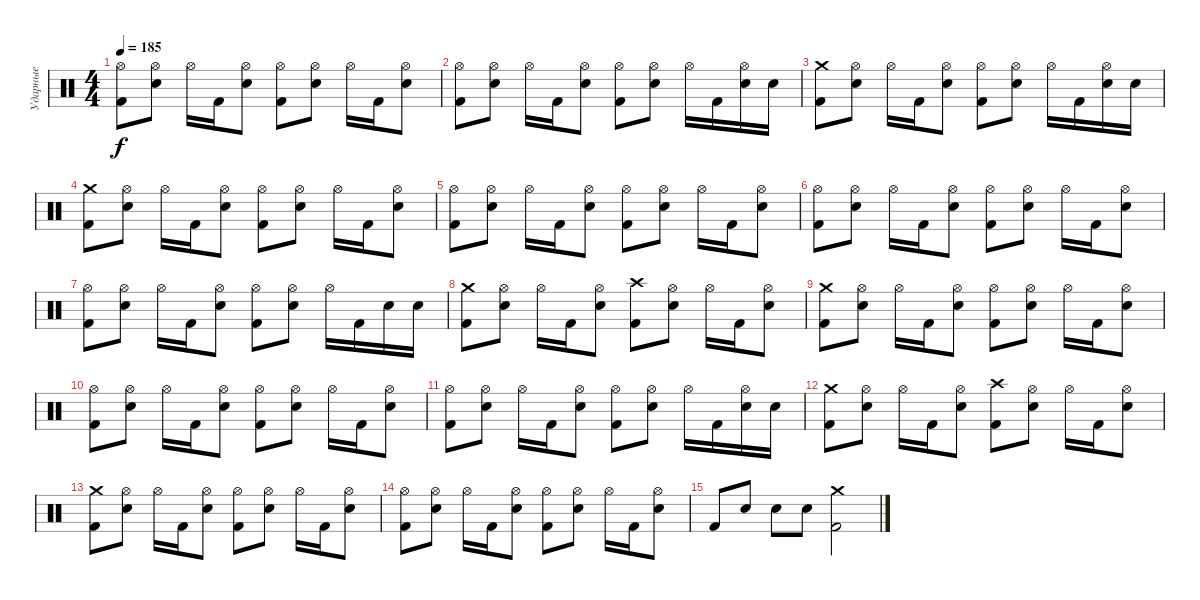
\track ("Ударные" "Ударные") {instrument percussion}
\staff {score}
\articulation defaults
\ts (4 4)
\tempo 185
\clef neutral
\ks c
("Hi-Hat (open)" "Kick (hit) 2").8{dy f} ("Hi-Hat (open)" "Electric Snare (hit)").8 "Hi-Hat (open)".16 "Kick (hit) 2".16 ("Hi-Hat (open)" "Electric Snare (hit)").8 ("Hi-Hat (open)" "Kick (hit) 2").8 ("Hi-Hat (open)" "Electric Snare (hit)").8 "Hi-Hat (open)".16 "Kick (hit) 2".16 ("Hi-Hat (open)" "Electric Snare (hit)").8 |
("Hi-Hat (open)" "Kick (hit) 2").8 ("Hi-Hat (open)" "Electric Snare (hit)").8 "Hi-Hat (open)".16 "Kick (hit) 2".16 ("Hi-Hat (open)" "Electric Snare (hit)").8 ("Hi-Hat (open)" "Kick (hit) 2").8 ("Hi-Hat (open)" "Electric Snare (hit)").8 "Hi-Hat (open)".16 "Kick (hit) 2".16 ("Hi-Hat (open)" "Electric Snare (hit)").16 "Electric Snare (hit)".16 |
("Crash medium (hit)" "Kick (hit) 2").8 ("Hi-Hat (open)" "Electric Snare (hit)").8 "Hi-Hat (open)".16 "Kick (hit) 2".16 ("Hi-Hat (open)" "Electric Snare (hit)").8 ("Hi-Hat (open)" "Kick (hit) 2").8 ("Hi-Hat (open)" "Electric Snare (hit)").8 "Hi-Hat (open)".16 "Kick (hit) 2".16 ("Hi-Hat (open)" "Electric Snare (hit)").16 "Electric Snare (hit)".16 |
("Crash medium (hit)" "Kick (hit) 2").8 ("Hi-Hat (open)" "Electric Snare (hit)").8 "Hi-Hat (open)".16 "Kick (hit) 2".16 ("Hi-Hat (open)" "Electric Snare (hit)").8 ("Hi-Hat (open)" "Kick (hit) 2").8 ("Hi-Hat (open)" "Electric Snare (hit)").8 "Hi-Hat (open)".16 "Kick (hit) 2".16 ("Hi-Hat (open)" "Electric Snare (hit)").8 |
("Hi-Hat (open)" "Kick (hit) 2").8 ("Hi-Hat (open)" "Electric Snare (hit)").8 "Hi-Hat (open)".16 "Kick (hit) 2".16 ("Hi-Hat (open)" "Electric Snare (hit)").8 ("Hi-Hat (open)" "Kick (hit) 2").8 ("Hi-Hat (open)" "Electric Snare (hit)").8 "Hi-Hat (open)".16 "Kick (hit) 2".16 ("Hi-Hat (open)" "Electric Snare (hit)").8 |
("Hi-Hat (open)" "Kick (hit) 2").8 ("Hi-Hat (open)" "Electric Snare (hit)").8 "Hi-Hat (open)".16 "Kick (hit) 2".16 ("Hi-Hat (open)" "Electric Snare (hit)").8 ("Hi-Hat (open)" "Kick (hit) 2").8 ("Hi-Hat (open)" "Electric Snare (hit)").8 "Hi-Hat (open)".16 "Kick (hit) 2".16 ("Hi-Hat (open)" "Electric Snare (hit)").8 |
("Hi-Hat (open)" "Kick (hit) 2").8 ("Hi-Hat (open)" "Electric Snare (hit)").8 "Hi-Hat (open)".16 "Kick (hit) 2".16 ("Hi-Hat (open)" "Electric Snare (hit)").8 ("Hi-Hat (open)" "Kick (hit) 2").8 ("Hi-Hat (open)" "Electric Snare (hit)").8 "Hi-Hat (open)".16 "Kick (hit) 2".16 "Electric Snare (hit)".16 "Electric Snare (hit)".16 |
("Crash medium (hit)" "Kick (hit) 2").8 ("Hi-Hat (open)" "Electric Snare (hit)").8 "Hi-Hat (open)".16 "Kick (hit) 2".16 ("Hi-Hat (open)" "Electric Snare (hit)").8 ("Crash high (hit)" "Kick (hit) 2").8 ("Hi-Hat (open)" "Electric Snare (hit)").8 "Hi-Hat (open)".16 "Kick (hit) 2".16 ("Hi-Hat (open)" "Electric Snare (hit)").8 |
("Crash medium (hit)" "Kick (hit) 2").8 ("Hi-Hat (open)" "Electric Snare (hit)").8 "Hi-Hat (open)".16 "Kick (hit) 2".16 ("Hi-Hat (open)" "Electric Snare (hit)").8 ("Hi-Hat (open)" "Kick (hit) 2").8 ("Hi-Hat (open)" "Electric Snare (hit)").8 "Hi-Hat (open)".16 "Kick (hit) 2".16 ("Hi-Hat (open)" "Electric Snare (hit)").8 |
("Hi-Hat (open)" "Kick (hit) 2").8 ("Hi-Hat (open)" "Electric Snare (hit)").8 "Hi-Hat (open)".16 "Kick (hit) 2".16 ("Hi-Hat (open)" "Electric Snare (hit)").8 ("Hi-Hat (open)" "Kick (hit) 2").8 ("Hi-Hat (open)" "Electric Snare (hit)").8 "Hi-Hat (open)".16 "Kick (hit) 2".16 ("Hi-Hat (open)" "Electric Snare (hit)").8 |
("Hi-Hat (open)" "Kick (hit) 2").8 ("Hi-Hat (open)" "Electric Snare (hit)").8 "Hi-Hat (open)".16 "Kick (hit) 2".16 ("Hi-Hat (open)" "Electric Snare (hit)").8 ("Hi-Hat (open)" "Kick (hit) 2").8 ("Hi-Hat (open)" "Electric Snare (hit)").8 "Hi-Hat (open)".16 "Kick (hit) 2".16 ("Hi-Hat (open)" "Electric Snare (hit)").16 "Electric Snare (hit)".16 |
("Crash medium (hit)" "Kick (hit) 2").8 ("Hi-Hat (open)" "Electric Snare (hit)").8 "Hi-Hat (open)".16 "Kick (hit) 2".16 ("Hi-Hat (open)" "Electric Snare (hit)").8 ("Crash high (hit)" "Kick (hit) 2").8 ("Hi-Hat (open)" "Electric Snare (hit)").8 "Hi-Hat (open)".16 "Kick (hit) 2".16 ("Hi-Hat (open)" "Electric Snare (hit)").8 |
("Crash medium (hit)" "Kick (hit) 2").8 ("Hi-Hat (open)" "Electric Snare (hit)").8 "Hi-Hat (open)".16 "Kick (hit) 2".16 ("Hi-Hat (open)" "Electric Snare (hit)").8 ("Hi-Hat (open)" "Kick (hit) 2").8 ("Hi-Hat (open)" "Electric Snare (hit)").8 "Hi-Hat (open)".16 "Kick (hit) 2".16 ("Hi-Hat (open)" "Electric Snare (hit)").8 |
("Hi-Hat (open)" "Kick (hit) 2").8 ("Hi-Hat (open)" "Electric Snare (hit)").8 "Hi-Hat (open)".16 "Kick (hit) 2".16 ("Hi-Hat (open)" "Electric Snare (hit)").8 ("Hi-Hat (open)" "Kick (hit) 2").8 ("Hi-Hat (open)" "Electric Snare (hit)").8 "Hi-Hat (open)".16 "Kick (hit) 2".16 ("Hi-Hat (open)" "Electric Snare (hit)").8 |
"Kick (hit) 2".8 "Electric Snare (hit)".8 "Electric Snare (hit)".8 "Electric Snare (hit)".8 ("Crash medium (hit)" "Kick (hit) 2").2
